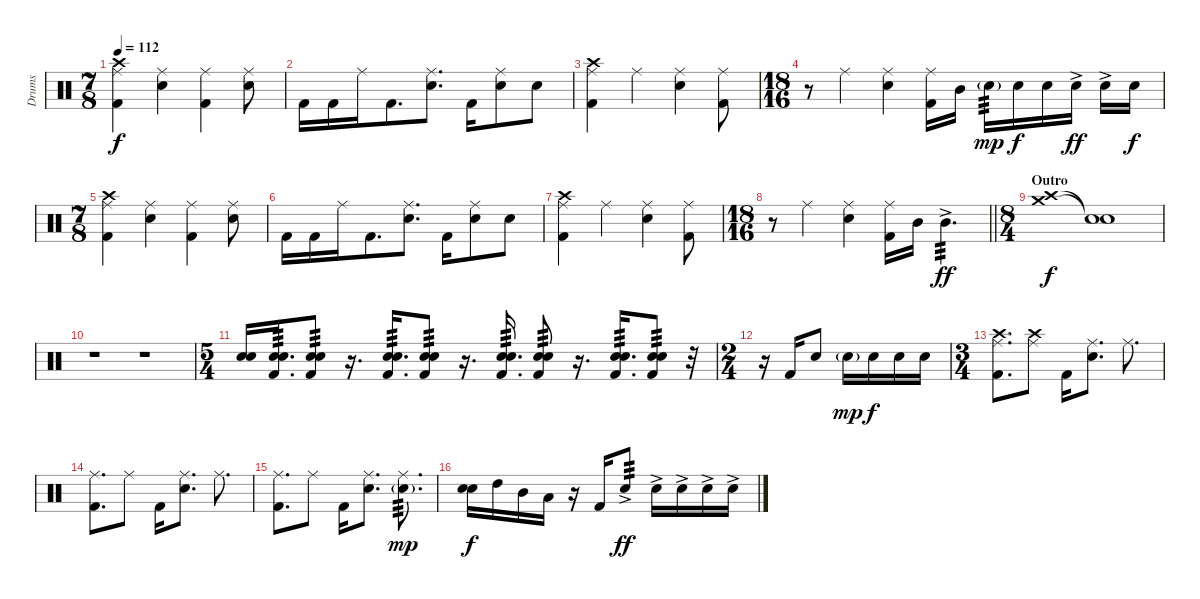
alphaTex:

\track ("Drums" "Drums") {instrument percussion}
\staff {score}
\articulation defaults
\ts (7 8)
\tempo 112
\clef neutral
\ks c
("Ride (middle)" "Crash high (hit)" "Kick (hit) 2").4{dy f} ("Ride (middle)" "Electric Snare (hit)").4 ("Ride (middle)" "Kick (hit) 2").4 ("Ride (middle)" "Electric Snare (hit)").8 |
"Kick (hit) 2".16 "Kick (hit) 2".16 "Ride (middle)".16 "Kick (hit) 2".8{d} ("Ride (middle)" "Electric Snare (hit)").8{d} "Kick (hit) 2".16 ("Ride (middle)" "Electric Snare (hit)").8 "Electric Snare (hit)".8 |
("Ride (middle)" "Crash high (hit)" "Kick (hit) 2").4 "Ride (middle)".4 ("Ride (middle)" "Electric Snare (hit)").4 ("Ride (middle)" "Kick (hit) 2").8 |
\ts (18 16)
r.8 "Ride (middle)".4 ("Ride (middle)" "Electric Snare (hit)").4 ("Ride (middle)" "Kick (hit) 2").16 "Mid Tom (hit)".16 "Electric Snare (hit)"{g}.16{tp 3 dy mp} "Electric Snare (hit)".16{dy f} "Electric Snare (hit)".16 "Electric Snare (hit)"{ac}.16{dy ff} "Electric Snare (hit)"{ac}.16 "Electric Snare (hit)".16{dy f} |
\ts (7 8)
("Ride (middle)" "Crash high (hit)" "Kick (hit) 2").4 ("Ride (middle)" "Electric Snare (hit)").4 ("Ride (middle)" "Kick (hit) 2").4 ("Ride (middle)" "Electric Snare (hit)").8 |
"Kick (hit) 2".16 "Kick (hit) 2".16 "Ride (middle)".16 "Kick (hit) 2".8{d} ("Ride (middle)" "Electric Snare (hit)").8{d} "Kick (hit) 2".16 ("Ride (middle)" "Electric Snare (hit)").8 "Electric Snare (hit)".8 |
("Ride (middle)" "Crash high (hit)" "Kick (hit) 2").4 "Ride (middle)".4 ("Ride (middle)" "Electric Snare (hit)").4 ("Ride (middle)" "Kick (hit) 2").8 |
\ts (18 16)
\barLineRight lightlight
r.8 "Ride (middle)".4 ("Ride (middle)" "Electric Snare (hit)").4 ("Ride (middle)" "Kick (hit) 2").16 "Mid Tom (hit)".16 "Mid Tom (hit)"{ac}.4{d tp 3 dy ff} |
\ts (8 4)
\section ("" "Outro")
("Crash high (hit)" "Crash medium (hit)").1{dy f} ("Snare (hit)"{t} "Snare (hit)"{t}).1 |
r.1 r.1 |
\ts (5 4)
("Electric Snare (hit)" "Electric Snare (hit)").16 ("Electric Snare (hit)" "Electric Snare (hit)" "Kick (hit) 2").16{d tp 3} ("Electric Snare (hit)" "Electric Snare (hit)" "Kick (hit) 2").8{tp 3} r.16{d} ("Electric Snare (hit)" "Electric Snare (hit)" "Kick (hit) 2").16{d tp 3} ("Electric Snare (hit)" "Electric Snare (hit)" "Kick (hit) 2").8{tp 3} r.16{d} ("Electric Snare (hit)" "Electric Snare (hit)" "Kick (hit) 2").16{d tp 3} ("Electric Snare (hit)" "Electric Snare (hit)" "Kick (hit) 2").8{tp 3} r.16{d} ("Electric Snare (hit)" "Electric Snare (hit)" "Kick (hit) 2").16{d tp 3} ("Electric Snare (hit)" "Electric Snare (hit)" "Kick (hit) 2").8{tp 3} r.32 |
\ts (2 4)
r.16 "Kick (hit) 2".16 "Electric Snare (hit)".8 "Electric Snare (hit)"{g}.16{dy mp} "Electric Snare (hit)".16{dy f} "Electric Snare (hit)".16 "Electric Snare (hit)".16 |
\ts (3 4)
("Ride (middle)" "Crash high (hit)" "Kick (hit) 2").8{d} ("Ride (middle)" "Crash high (hit)").8 "Kick (hit) 2".16 ("Ride (middle)" "Electric Snare (hit)").8{d} "Ride (middle)".8{d} |
("Ride (middle)" "Kick (hit) 2").8{d} "Ride (middle)".8 "Kick (hit) 2".16 ("Ride (middle)" "Electric Snare (hit)").8{d} "Ride (middle)".8{d} |
("Ride (middle)" "Kick (hit) 2").8{d} "Ride (middle)".8 "Kick (hit) 2".16 ("Ride (middle)" "Electric Snare (hit)").8{d} ("Ride (middle)" "Electric Snare (hit)"{g}).8{d tp 3 dy mp} |
("Electric Snare (hit)" "Electric Snare (hit)").16{dy f} "High Tom (hit)".16 "Mid Tom (hit)".16 "Low Tom (hit)".16 r.16 "Kick (hit) 2".16 "Electric Snare (hit)"{ac}.8{tp 3 dy ff} "Electric Snare (hit)"{ac}.16 "Electric Snare (hit)"{ac}.16 "Electric Snare (hit)"{ac}.16 "Electric Snare (hit)"{ac}.16
